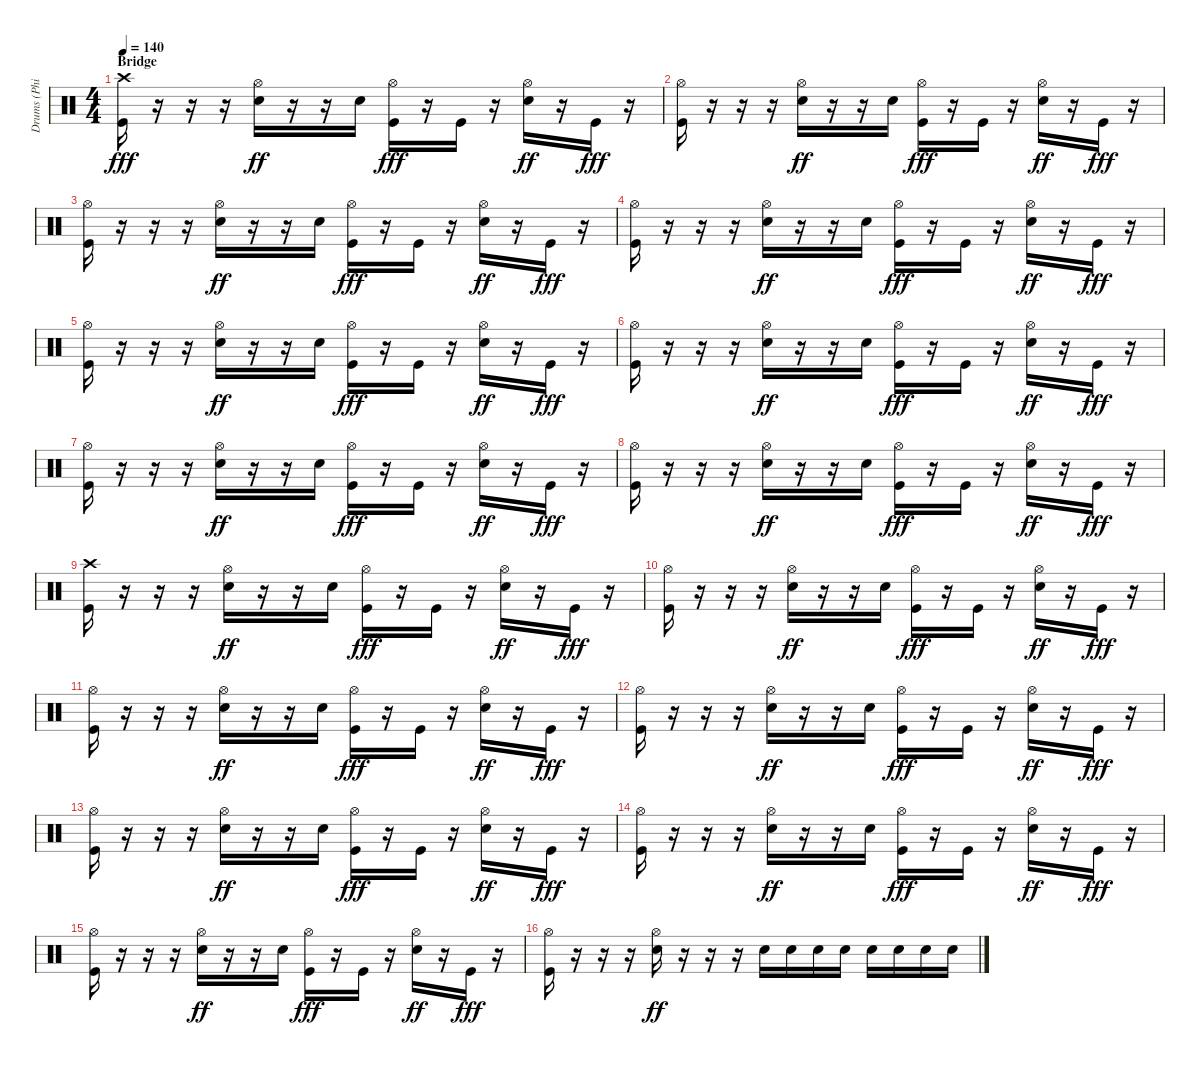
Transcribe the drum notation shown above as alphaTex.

\track ("Drums (Phillip Selway)" "Drums (Phi") {instrument percussion}
\staff {score}
\articulation defaults
\ts (4 4)
\section ("" "Bridge")
\tempo 140
\clef neutral
\ks c
("Crash high (hit)" "Kick (hit)").16{dy fff} r.16 r.16 r.16 ("Hi-Hat (open)" "Electric Snare (hit)").16{dy ff} r.16 r.16 "Electric Snare (hit)".16 ("Hi-Hat (open)" "Kick (hit)").16{dy fff} r.16 "Kick (hit)".16 r.16 ("Hi-Hat (open)" "Electric Snare (hit)").16{dy ff} r.16 "Kick (hit)".16{dy fff} r.16 |
("Hi-Hat (open)" "Kick (hit)").16 r.16 r.16 r.16 ("Hi-Hat (open)" "Electric Snare (hit)").16{dy ff} r.16 r.16 "Electric Snare (hit)".16 ("Hi-Hat (open)" "Kick (hit)").16{dy fff} r.16 "Kick (hit)".16 r.16 ("Hi-Hat (open)" "Electric Snare (hit)").16{dy ff} r.16 "Kick (hit)".16{dy fff} r.16 |
("Hi-Hat (open)" "Kick (hit)").16 r.16 r.16 r.16 ("Hi-Hat (open)" "Electric Snare (hit)").16{dy ff} r.16 r.16 "Electric Snare (hit)".16 ("Hi-Hat (open)" "Kick (hit)").16{dy fff} r.16 "Kick (hit)".16 r.16 ("Hi-Hat (open)" "Electric Snare (hit)").16{dy ff} r.16 "Kick (hit)".16{dy fff} r.16 |
("Hi-Hat (open)" "Kick (hit)").16 r.16 r.16 r.16 ("Hi-Hat (open)" "Electric Snare (hit)").16{dy ff} r.16 r.16 "Electric Snare (hit)".16 ("Hi-Hat (open)" "Kick (hit)").16{dy fff} r.16 "Kick (hit)".16 r.16 ("Hi-Hat (open)" "Electric Snare (hit)").16{dy ff} r.16 "Kick (hit)".16{dy fff} r.16 |
("Hi-Hat (open)" "Kick (hit)").16 r.16 r.16 r.16 ("Hi-Hat (open)" "Electric Snare (hit)").16{dy ff} r.16 r.16 "Electric Snare (hit)".16 ("Hi-Hat (open)" "Kick (hit)").16{dy fff} r.16 "Kick (hit)".16 r.16 ("Hi-Hat (open)" "Electric Snare (hit)").16{dy ff} r.16 "Kick (hit)".16{dy fff} r.16 |
("Hi-Hat (open)" "Kick (hit)").16 r.16 r.16 r.16 ("Hi-Hat (open)" "Electric Snare (hit)").16{dy ff} r.16 r.16 "Electric Snare (hit)".16 ("Hi-Hat (open)" "Kick (hit)").16{dy fff} r.16 "Kick (hit)".16 r.16 ("Hi-Hat (open)" "Electric Snare (hit)").16{dy ff} r.16 "Kick (hit)".16{dy fff} r.16 |
("Hi-Hat (open)" "Kick (hit)").16 r.16 r.16 r.16 ("Hi-Hat (open)" "Electric Snare (hit)").16{dy ff} r.16 r.16 "Electric Snare (hit)".16 ("Hi-Hat (open)" "Kick (hit)").16{dy fff} r.16 "Kick (hit)".16 r.16 ("Hi-Hat (open)" "Electric Snare (hit)").16{dy ff} r.16 "Kick (hit)".16{dy fff} r.16 |
("Hi-Hat (open)" "Kick (hit)").16 r.16 r.16 r.16 ("Hi-Hat (open)" "Electric Snare (hit)").16{dy ff} r.16 r.16 "Electric Snare (hit)".16 ("Hi-Hat (open)" "Kick (hit)").16{dy fff} r.16 "Kick (hit)".16 r.16 ("Hi-Hat (open)" "Electric Snare (hit)").16{dy ff} r.16 "Kick (hit)".16{dy fff} r.16 |
("Crash high (hit)" "Kick (hit)").16 r.16 r.16 r.16 ("Hi-Hat (open)" "Electric Snare (hit)").16{dy ff} r.16 r.16 "Electric Snare (hit)".16 ("Hi-Hat (open)" "Kick (hit)").16{dy fff} r.16 "Kick (hit)".16 r.16 ("Hi-Hat (open)" "Electric Snare (hit)").16{dy ff} r.16 "Kick (hit)".16{dy fff} r.16 |
("Hi-Hat (open)" "Kick (hit)").16 r.16 r.16 r.16 ("Hi-Hat (open)" "Electric Snare (hit)").16{dy ff} r.16 r.16 "Electric Snare (hit)".16 ("Hi-Hat (open)" "Kick (hit)").16{dy fff} r.16 "Kick (hit)".16 r.16 ("Hi-Hat (open)" "Electric Snare (hit)").16{dy ff} r.16 "Kick (hit)".16{dy fff} r.16 |
("Hi-Hat (open)" "Kick (hit)").16 r.16 r.16 r.16 ("Hi-Hat (open)" "Electric Snare (hit)").16{dy ff} r.16 r.16 "Electric Snare (hit)".16 ("Hi-Hat (open)" "Kick (hit)").16{dy fff} r.16 "Kick (hit)".16 r.16 ("Hi-Hat (open)" "Electric Snare (hit)").16{dy ff} r.16 "Kick (hit)".16{dy fff} r.16 |
("Hi-Hat (open)" "Kick (hit)").16 r.16 r.16 r.16 ("Hi-Hat (open)" "Electric Snare (hit)").16{dy ff} r.16 r.16 "Electric Snare (hit)".16 ("Hi-Hat (open)" "Kick (hit)").16{dy fff} r.16 "Kick (hit)".16 r.16 ("Hi-Hat (open)" "Electric Snare (hit)").16{dy ff} r.16 "Kick (hit)".16{dy fff} r.16 |
("Hi-Hat (open)" "Kick (hit)").16 r.16 r.16 r.16 ("Hi-Hat (open)" "Electric Snare (hit)").16{dy ff} r.16 r.16 "Electric Snare (hit)".16 ("Hi-Hat (open)" "Kick (hit)").16{dy fff} r.16 "Kick (hit)".16 r.16 ("Hi-Hat (open)" "Electric Snare (hit)").16{dy ff} r.16 "Kick (hit)".16{dy fff} r.16 |
("Hi-Hat (open)" "Kick (hit)").16 r.16 r.16 r.16 ("Hi-Hat (open)" "Electric Snare (hit)").16{dy ff} r.16 r.16 "Electric Snare (hit)".16 ("Hi-Hat (open)" "Kick (hit)").16{dy fff} r.16 "Kick (hit)".16 r.16 ("Hi-Hat (open)" "Electric Snare (hit)").16{dy ff} r.16 "Kick (hit)".16{dy fff} r.16 |
("Hi-Hat (open)" "Kick (hit)").16 r.16 r.16 r.16 ("Hi-Hat (open)" "Electric Snare (hit)").16{dy ff} r.16 r.16 "Electric Snare (hit)".16 ("Hi-Hat (open)" "Kick (hit)").16{dy fff} r.16 "Kick (hit)".16 r.16 ("Hi-Hat (open)" "Electric Snare (hit)").16{dy ff} r.16 "Kick (hit)".16{dy fff} r.16 |
("Hi-Hat (open)" "Kick (hit)").16 r.16 r.16 r.16 ("Hi-Hat (open)" "Electric Snare (hit)").16{dy ff} r.16 r.16 r.16 "Electric Snare (hit)".16 "Electric Snare (hit)".16 "Electric Snare (hit)".16 "Electric Snare (hit)".16 "Electric Snare (hit)".16 "Electric Snare (hit)".16 "Electric Snare (hit)".16 "Electric Snare (hit)".16
